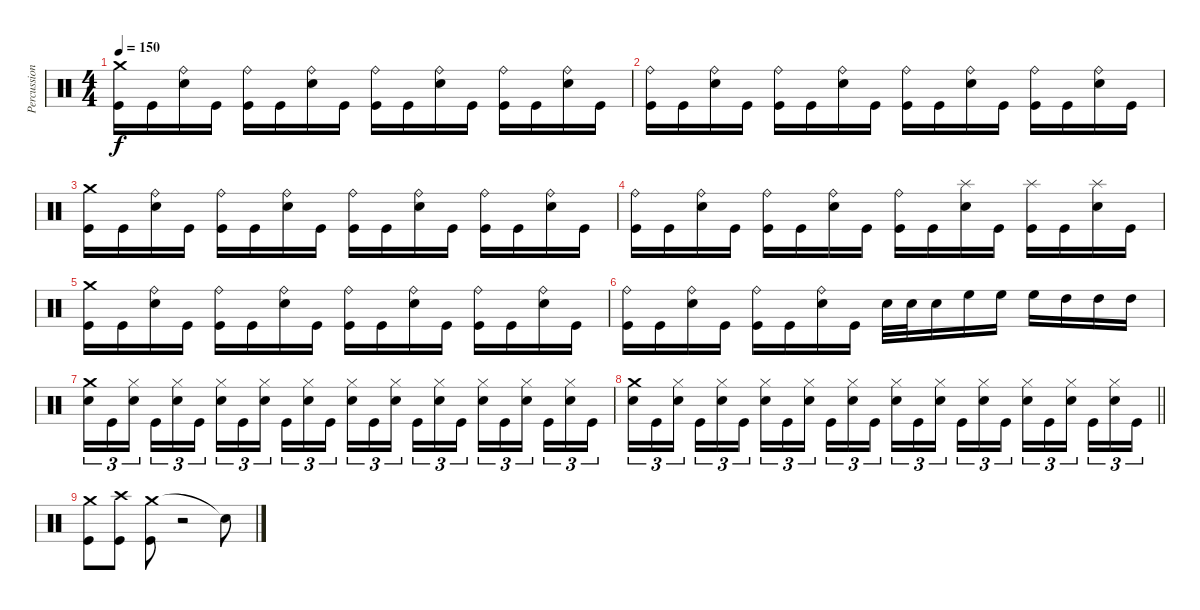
\track ("Percussion" "Percussion") {instrument percussion}
\staff {score}
\articulation defaults
\ts (4 4)
\tempo 150
\clef neutral
\ks c
("Crash medium (hit)" "Kick (hit)").16{dy f} "Kick (hit)".16 ("Ride (bell)" "Snare (hit) 2").16 "Kick (hit)".16 ("Ride (bell)" "Kick (hit)").16 "Kick (hit)".16 ("Ride (bell)" "Snare (hit) 2").16 "Kick (hit)".16 ("Ride (bell)" "Kick (hit)").16 "Kick (hit)".16 ("Ride (bell)" "Snare (hit) 2").16 "Kick (hit)".16 ("Ride (bell)" "Kick (hit)").16 "Kick (hit)".16 ("Ride (bell)" "Snare (hit) 2").16 "Kick (hit)".16 |
("Ride (bell)" "Kick (hit)").16 "Kick (hit)".16 ("Ride (bell)" "Snare (hit) 2").16 "Kick (hit)".16 ("Ride (bell)" "Kick (hit)").16 "Kick (hit)".16 ("Ride (bell)" "Snare (hit) 2").16 "Kick (hit)".16 ("Ride (bell)" "Kick (hit)").16 "Kick (hit)".16 ("Ride (bell)" "Snare (hit) 2").16 "Kick (hit)".16 ("Ride (bell)" "Kick (hit)").16 "Kick (hit)".16 ("Ride (bell)" "Snare (hit) 2").16 "Kick (hit)".16 |
("Crash medium (hit)" "Kick (hit)").16 "Kick (hit)".16 ("Ride (bell)" "Snare (hit) 2").16 "Kick (hit)".16 ("Ride (bell)" "Kick (hit)").16 "Kick (hit)".16 ("Ride (bell)" "Snare (hit) 2").16 "Kick (hit)".16 ("Ride (bell)" "Kick (hit)").16 "Kick (hit)".16 ("Ride (bell)" "Snare (hit) 2").16 "Kick (hit)".16 ("Ride (bell)" "Kick (hit)").16 "Kick (hit)".16 ("Ride (bell)" "Snare (hit) 2").16 "Kick (hit)".16 |
("Ride (bell)" "Kick (hit)").16 "Kick (hit)".16 ("Ride (bell)" "Snare (hit) 2").16 "Kick (hit)".16 ("Ride (bell)" "Kick (hit)").16 "Kick (hit)".16 ("Ride (bell)" "Snare (hit) 2").16 "Kick (hit)".16 ("Ride (bell)" "Kick (hit)").16 "Kick (hit)".16 ("Splash (hit)" "Snare (hit) 2").16 "Kick (hit)".16 ("Splash (hit)" "Kick (hit)").16 "Kick (hit)".16 ("Splash (hit)" "Snare (hit) 2").16 "Kick (hit)".16 |
("Crash medium (hit)" "Kick (hit)").16 "Kick (hit)".16 ("Ride (bell)" "Snare (hit) 2").16 "Kick (hit)".16 ("Ride (bell)" "Kick (hit)").16 "Kick (hit)".16 ("Ride (bell)" "Snare (hit) 2").16 "Kick (hit)".16 ("Ride (bell)" "Kick (hit)").16 "Kick (hit)".16 ("Ride (bell)" "Snare (hit) 2").16 "Kick (hit)".16 ("Ride (bell)" "Kick (hit)").16 "Kick (hit)".16 ("Ride (bell)" "Snare (hit) 2").16 "Kick (hit)".16 |
("Ride (bell)" "Kick (hit)").16 "Kick (hit)".16 ("Ride (bell)" "Snare (hit) 2").16 "Kick (hit)".16 ("Ride (bell)" "Kick (hit)").16 "Kick (hit)".16 ("Ride (bell)" "Snare (hit) 2").16 "Kick (hit)".16 "Snare (hit) 2".32 "Snare (hit) 2".32 "Snare (hit) 2".16 "High Floor Tom (hit)".16 "High Floor Tom (hit)".16 "High Floor Tom (hit)".16 "High Tom (hit)".16 "High Tom (hit)".16 "High Tom (hit)".16 |
("Crash medium (hit)" "Snare (hit) 2").16{tu (3 2)} "Kick (hit)".16{tu (3 2)} ("Hi-Hat (closed)" "Snare (hit) 2").16{tu (3 2) beam splitsecondary} "Kick (hit)".16{tu (3 2)} ("Hi-Hat (closed)" "Snare (hit) 2").16{tu (3 2)} "Kick (hit)".16{tu (3 2)} ("Hi-Hat (closed)" "Snare (hit) 2").16{tu (3 2)} "Kick (hit)".16{tu (3 2)} ("Hi-Hat (closed)" "Snare (hit) 2").16{tu (3 2) beam splitsecondary} "Kick (hit)".16{tu (3 2)} ("Hi-Hat (closed)" "Snare (hit) 2").16{tu (3 2)} "Kick (hit)".16{tu (3 2)} ("Hi-Hat (closed)" "Snare (hit) 2").16{tu (3 2)} "Kick (hit)".16{tu (3 2)} ("Hi-Hat (closed)" "Snare (hit) 2").16{tu (3 2) beam splitsecondary} "Kick (hit)".16{tu (3 2)} ("Hi-Hat (closed)" "Snare (hit) 2").16{tu (3 2)} "Kick (hit)".16{tu (3 2)} ("Hi-Hat (closed)" "Snare (hit) 2").16{tu (3 2)} "Kick (hit)".16{tu (3 2)} ("Hi-Hat (closed)" "Snare (hit) 2").16{tu (3 2) beam splitsecondary} "Kick (hit)".16{tu (3 2)} ("Hi-Hat (closed)" "Snare (hit) 2").16{tu (3 2)} "Kick (hit)".16{tu (3 2)} |
\barLineRight lightlight
("Crash medium (hit)" "Snare (hit) 2").16{tu (3 2)} "Kick (hit)".16{tu (3 2)} ("Hi-Hat (closed)" "Snare (hit) 2").16{tu (3 2) beam splitsecondary} "Kick (hit)".16{tu (3 2)} ("Hi-Hat (closed)" "Snare (hit) 2").16{tu (3 2)} "Kick (hit)".16{tu (3 2)} ("Hi-Hat (closed)" "Snare (hit) 2").16{tu (3 2)} "Kick (hit)".16{tu (3 2)} ("Hi-Hat (closed)" "Snare (hit) 2").16{tu (3 2) beam splitsecondary} "Kick (hit)".16{tu (3 2)} ("Hi-Hat (closed)" "Snare (hit) 2").16{tu (3 2)} "Kick (hit)".16{tu (3 2)} ("Hi-Hat (closed)" "Snare (hit) 2").16{tu (3 2)} "Kick (hit)".16{tu (3 2)} ("Hi-Hat (closed)" "Snare (hit) 2").16{tu (3 2) beam splitsecondary} "Kick (hit)".16{tu (3 2)} ("Hi-Hat (closed)" "Snare (hit) 2").16{tu (3 2)} "Kick (hit)".16{tu (3 2)} ("Hi-Hat (closed)" "Snare (hit) 2").16{tu (3 2)} "Kick (hit)".16{tu (3 2)} ("Hi-Hat (closed)" "Snare (hit) 2").16{tu (3 2) beam splitsecondary} "Kick (hit)".16{tu (3 2)} ("Hi-Hat (closed)" "Snare (hit) 2").16{tu (3 2)} "Kick (hit)".16{tu (3 2)} |
("Crash medium (hit)" "Kick (hit)").8 ("Crash high (hit)" "Kick (hit)").8 ("Crash medium (hit)" "Kick (hit)").8 r.2 "Snare (hit)"{t}.8
